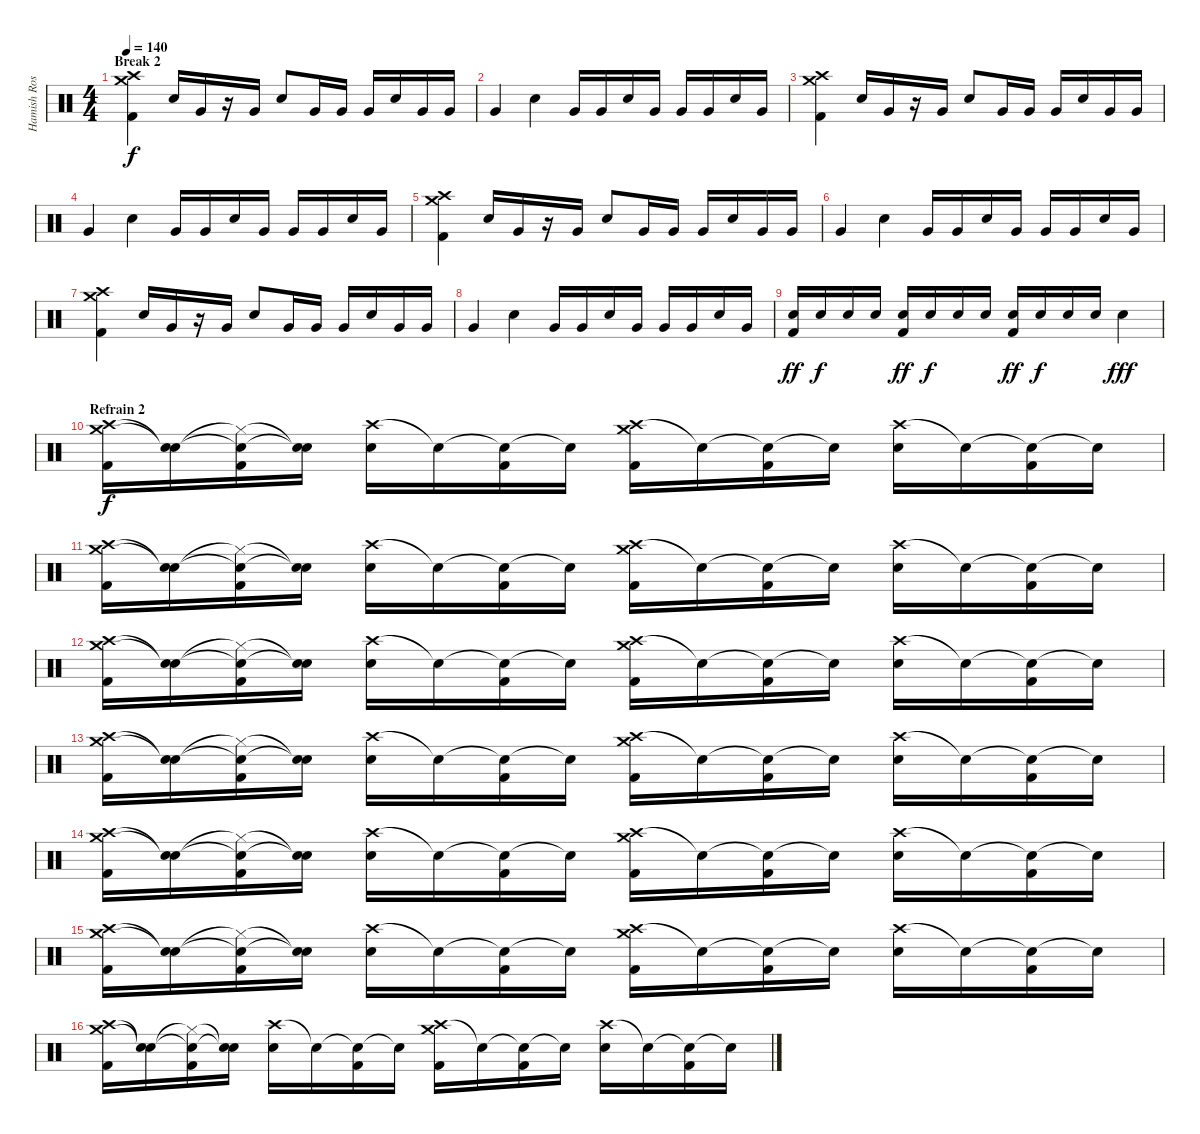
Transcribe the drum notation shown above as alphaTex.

\track ("Hamish Rosser" "Hamish Ros") {instrument percussion}
\staff {score}
\articulation defaults
\ts (4 4)
\section ("" "Break 2")
\tempo 140
\clef neutral
\ks c
("Crash medium (hit)" "Crash high (hit)" "Kick (hit) 2").4{dy f} "Snare (hit) 2".16 "Very Low Tom (hit)".16 r.16 "Very Low Tom (hit)".16 "Snare (hit) 2".8 "Very Low Tom (hit)".16 "Very Low Tom (hit)".16 "Very Low Tom (hit)".16 "Snare (hit) 2".16 "Very Low Tom (hit)".16 "Very Low Tom (hit)".16 |
"Very Low Tom (hit)".4 "Snare (hit) 2".4 "Very Low Tom (hit)".16 "Very Low Tom (hit)".16 "Snare (hit) 2".16 "Very Low Tom (hit)".16 "Very Low Tom (hit)".16 "Very Low Tom (hit)".16 "Snare (hit) 2".16 "Very Low Tom (hit)".16 |
("Crash medium (hit)" "Crash high (hit)" "Kick (hit) 2").4 "Snare (hit) 2".16 "Very Low Tom (hit)".16 r.16 "Very Low Tom (hit)".16 "Snare (hit) 2".8 "Very Low Tom (hit)".16 "Very Low Tom (hit)".16 "Very Low Tom (hit)".16 "Snare (hit) 2".16 "Very Low Tom (hit)".16 "Very Low Tom (hit)".16 |
"Very Low Tom (hit)".4 "Snare (hit) 2".4 "Very Low Tom (hit)".16 "Very Low Tom (hit)".16 "Snare (hit) 2".16 "Very Low Tom (hit)".16 "Very Low Tom (hit)".16 "Very Low Tom (hit)".16 "Snare (hit) 2".16 "Very Low Tom (hit)".16 |
("Crash medium (hit)" "Crash high (hit)" "Kick (hit) 2").4 "Snare (hit) 2".16 "Very Low Tom (hit)".16 r.16 "Very Low Tom (hit)".16 "Snare (hit) 2".8 "Very Low Tom (hit)".16 "Very Low Tom (hit)".16 "Very Low Tom (hit)".16 "Snare (hit) 2".16 "Very Low Tom (hit)".16 "Very Low Tom (hit)".16 |
"Very Low Tom (hit)".4 "Snare (hit) 2".4 "Very Low Tom (hit)".16 "Very Low Tom (hit)".16 "Snare (hit) 2".16 "Very Low Tom (hit)".16 "Very Low Tom (hit)".16 "Very Low Tom (hit)".16 "Snare (hit) 2".16 "Very Low Tom (hit)".16 |
("Crash medium (hit)" "Crash high (hit)" "Kick (hit) 2").4 "Snare (hit) 2".16 "Very Low Tom (hit)".16 r.16 "Very Low Tom (hit)".16 "Snare (hit) 2".8 "Very Low Tom (hit)".16 "Very Low Tom (hit)".16 "Very Low Tom (hit)".16 "Snare (hit) 2".16 "Very Low Tom (hit)".16 "Very Low Tom (hit)".16 |
"Very Low Tom (hit)".4 "Snare (hit) 2".4 "Very Low Tom (hit)".16 "Very Low Tom (hit)".16 "Snare (hit) 2".16 "Very Low Tom (hit)".16 "Very Low Tom (hit)".16 "Very Low Tom (hit)".16 "Snare (hit) 2".16 "Very Low Tom (hit)".16 |
("Electric Snare (hit)" "Kick (hit) 2").16{dy ff volume 14} "Electric Snare (hit)".16{dy f} "Electric Snare (hit)".16 "Electric Snare (hit)".16 ("Electric Snare (hit)" "Kick (hit) 2").16{dy ff} "Electric Snare (hit)".16{dy f} "Electric Snare (hit)".16 "Electric Snare (hit)".16 ("Electric Snare (hit)" "Kick (hit) 2").16{dy ff volume 15} "Electric Snare (hit)".16{dy f} "Electric Snare (hit)".16 "Electric Snare (hit)".16 "Electric Snare (hit)".4{dy fff volume 16} |
\section ("" "Refrain 2")
("Crash high (hit)" "Crash medium (hit)" "Kick (hit) 2").16{dy f} ("Snare (hit)"{t} "Snare (hit)"{t}).16 ("Snare (hit)"{t} "Hi-Hat (closed)"{t} "Kick (hit) 2").16 ("Snare (hit)"{t} "Snare (hit)"{t}).16 ("Crash high (hit)" "Electric Snare (hit)").16 "Snare (hit)"{t}.16 ("Snare (hit)"{t} "Kick (hit) 2").16 "Snare (hit)"{t}.16 ("Crash high (hit)" "Crash medium (hit)" "Kick (hit) 2").16 "Snare (hit)"{t}.16 ("Snare (hit)"{t} "Kick (hit) 2").16 "Snare (hit)"{t}.16 ("Crash high (hit)" "Electric Snare (hit)").16 "Snare (hit)"{t}.16 ("Snare (hit)"{t} "Kick (hit) 2").16 "Snare (hit)"{t}.16 |
("Crash high (hit)" "Crash medium (hit)" "Kick (hit) 2").16 ("Snare (hit)"{t} "Snare (hit)"{t}).16 ("Snare (hit)"{t} "Hi-Hat (closed)"{t} "Kick (hit) 2").16 ("Snare (hit)"{t} "Snare (hit)"{t}).16 ("Crash high (hit)" "Electric Snare (hit)").16 "Snare (hit)"{t}.16 ("Snare (hit)"{t} "Kick (hit) 2").16 "Snare (hit)"{t}.16 ("Crash high (hit)" "Crash medium (hit)" "Kick (hit) 2").16 "Snare (hit)"{t}.16 ("Snare (hit)"{t} "Kick (hit) 2").16 "Snare (hit)"{t}.16 ("Crash high (hit)" "Electric Snare (hit)").16 "Snare (hit)"{t}.16 ("Snare (hit)"{t} "Kick (hit) 2").16 "Snare (hit)"{t}.16 |
("Crash high (hit)" "Crash medium (hit)" "Kick (hit) 2").16 ("Snare (hit)"{t} "Snare (hit)"{t}).16 ("Snare (hit)"{t} "Hi-Hat (closed)"{t} "Kick (hit) 2").16 ("Snare (hit)"{t} "Snare (hit)"{t}).16 ("Crash high (hit)" "Electric Snare (hit)").16 "Snare (hit)"{t}.16 ("Snare (hit)"{t} "Kick (hit) 2").16 "Snare (hit)"{t}.16 ("Crash high (hit)" "Crash medium (hit)" "Kick (hit) 2").16 "Snare (hit)"{t}.16 ("Snare (hit)"{t} "Kick (hit) 2").16 "Snare (hit)"{t}.16 ("Crash high (hit)" "Electric Snare (hit)").16 "Snare (hit)"{t}.16 ("Snare (hit)"{t} "Kick (hit) 2").16 "Snare (hit)"{t}.16 |
("Crash high (hit)" "Crash medium (hit)" "Kick (hit) 2").16 ("Snare (hit)"{t} "Snare (hit)"{t}).16 ("Snare (hit)"{t} "Hi-Hat (closed)"{t} "Kick (hit) 2").16 ("Snare (hit)"{t} "Snare (hit)"{t}).16 ("Crash high (hit)" "Electric Snare (hit)").16 "Snare (hit)"{t}.16 ("Snare (hit)"{t} "Kick (hit) 2").16 "Snare (hit)"{t}.16 ("Crash high (hit)" "Crash medium (hit)" "Kick (hit) 2").16 "Snare (hit)"{t}.16 ("Snare (hit)"{t} "Kick (hit) 2").16 "Snare (hit)"{t}.16 ("Crash high (hit)" "Electric Snare (hit)").16 "Snare (hit)"{t}.16 ("Snare (hit)"{t} "Kick (hit) 2").16 "Snare (hit)"{t}.16 |
("Crash high (hit)" "Crash medium (hit)" "Kick (hit) 2").16 ("Snare (hit)"{t} "Snare (hit)"{t}).16 ("Snare (hit)"{t} "Hi-Hat (closed)"{t} "Kick (hit) 2").16 ("Snare (hit)"{t} "Snare (hit)"{t}).16 ("Crash high (hit)" "Electric Snare (hit)").16 "Snare (hit)"{t}.16 ("Snare (hit)"{t} "Kick (hit) 2").16 "Snare (hit)"{t}.16 ("Crash high (hit)" "Crash medium (hit)" "Kick (hit) 2").16 "Snare (hit)"{t}.16 ("Snare (hit)"{t} "Kick (hit) 2").16 "Snare (hit)"{t}.16 ("Crash high (hit)" "Electric Snare (hit)").16 "Snare (hit)"{t}.16 ("Snare (hit)"{t} "Kick (hit) 2").16 "Snare (hit)"{t}.16 |
("Crash high (hit)" "Crash medium (hit)" "Kick (hit) 2").16 ("Snare (hit)"{t} "Snare (hit)"{t}).16 ("Snare (hit)"{t} "Hi-Hat (closed)"{t} "Kick (hit) 2").16 ("Snare (hit)"{t} "Snare (hit)"{t}).16 ("Crash high (hit)" "Electric Snare (hit)").16 "Snare (hit)"{t}.16 ("Snare (hit)"{t} "Kick (hit) 2").16 "Snare (hit)"{t}.16 ("Crash high (hit)" "Crash medium (hit)" "Kick (hit) 2").16 "Snare (hit)"{t}.16 ("Snare (hit)"{t} "Kick (hit) 2").16 "Snare (hit)"{t}.16 ("Crash high (hit)" "Electric Snare (hit)").16 "Snare (hit)"{t}.16 ("Snare (hit)"{t} "Kick (hit) 2").16 "Snare (hit)"{t}.16 |
("Crash high (hit)" "Crash medium (hit)" "Kick (hit) 2").16 ("Snare (hit)"{t} "Snare (hit)"{t}).16 ("Snare (hit)"{t} "Hi-Hat (closed)"{t} "Kick (hit) 2").16 ("Snare (hit)"{t} "Snare (hit)"{t}).16 ("Crash high (hit)" "Electric Snare (hit)").16 "Snare (hit)"{t}.16 ("Snare (hit)"{t} "Kick (hit) 2").16 "Snare (hit)"{t}.16 ("Crash high (hit)" "Crash medium (hit)" "Kick (hit) 2").16 "Snare (hit)"{t}.16 ("Snare (hit)"{t} "Kick (hit) 2").16 "Snare (hit)"{t}.16 ("Crash high (hit)" "Electric Snare (hit)").16 "Snare (hit)"{t}.16 ("Snare (hit)"{t} "Kick (hit) 2").16 "Snare (hit)"{t}.16
